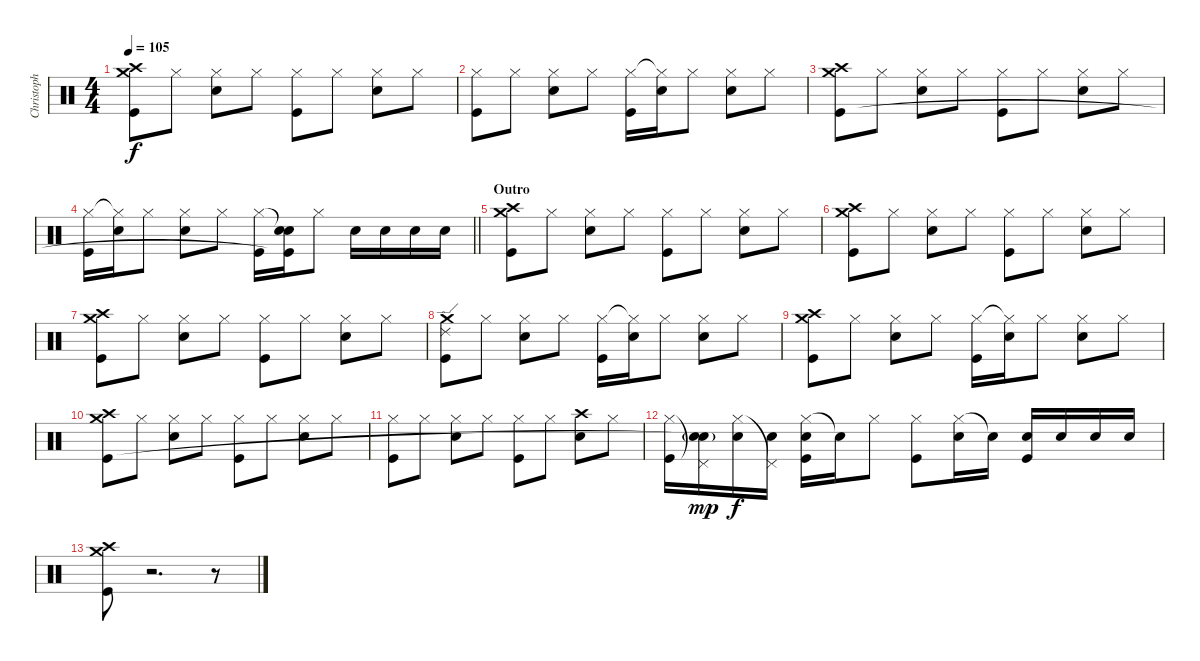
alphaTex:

\track ("Christoph Schneider" "Christoph ") {instrument percussion}
\staff {score}
\articulation defaults
\ts (4 4)
\tempo 105
\clef neutral
\ks c
("Crash medium (hit)" "Crash high (hit)" "Kick (hit)").8{dy f} "Hi-Hat (closed)".8 ("Hi-Hat (closed)" "Snare (hit) 2").8 "Hi-Hat (closed)".8 ("Hi-Hat (closed)" "Kick (hit)").8 "Hi-Hat (closed)".8 ("Hi-Hat (closed)" "Snare (hit) 2").8 "Hi-Hat (closed)".8 |
("Hi-Hat (closed)" "Kick (hit)").8 "Hi-Hat (closed)".8 ("Hi-Hat (closed)" "Snare (hit) 2").8 "Hi-Hat (closed)".8 ("Hi-Hat (closed)" "Kick (hit)").16 ("Hi-Hat (closed)"{t} "Snare (hit) 2").16 "Hi-Hat (closed)".8 ("Hi-Hat (closed)" "Snare (hit) 2").8 "Hi-Hat (closed)".8 |
("Crash medium (hit)" "Crash high (hit)" "Kick (hit)").8 "Hi-Hat (closed)".8 ("Hi-Hat (closed)" "Snare (hit) 2").8 "Hi-Hat (closed)".8 ("Hi-Hat (closed)" "Kick (hit)").8 "Hi-Hat (closed)".8 ("Hi-Hat (closed)" "Snare (hit) 2").8 "Hi-Hat (closed)".8 |
\barLineRight lightlight
("Hi-Hat (closed)" "Kick (hit)").16 ("Hi-Hat (closed)"{t} "Snare (hit) 2").16 "Hi-Hat (closed)".8 ("Hi-Hat (closed)" "Snare (hit) 2").8 "Hi-Hat (closed)".8 ("Hi-Hat (closed)" "Kick (hit)").16 ("Snare (hit)"{t} "Snare (hit) 2" "Kick (hit)"{t}).16 "Hi-Hat (closed)".8 "Snare (hit) 2".16 "Snare (hit) 2".16 "Snare (hit) 2".16 "Snare (hit) 2".16 |
\section ("" "Outro")
("Crash medium (hit)" "Crash high (hit)" "Kick (hit)").8 "Hi-Hat (closed)".8 ("Hi-Hat (closed)" "Snare (hit) 2").8 "Hi-Hat (closed)".8 ("Hi-Hat (closed)" "Kick (hit)").8 "Hi-Hat (closed)".8 ("Hi-Hat (closed)" "Snare (hit) 2").8 "Hi-Hat (closed)".8 |
("Crash medium (hit)" "Crash high (hit)" "Kick (hit)").8 "Hi-Hat (closed)".8 ("Hi-Hat (closed)" "Snare (hit) 2").8 "Hi-Hat (closed)".8 ("Hi-Hat (closed)" "Kick (hit)").8 "Hi-Hat (closed)".8 ("Hi-Hat (closed)" "Snare (hit) 2").8 "Hi-Hat (closed)".8 |
("Crash medium (hit)" "Crash high (hit)" "Kick (hit)").8 "Hi-Hat (closed)".8 ("Hi-Hat (closed)" "Snare (hit) 2").8 "Hi-Hat (closed)".8 ("Hi-Hat (closed)" "Kick (hit)").8 "Hi-Hat (closed)".8 ("Hi-Hat (closed)" "Snare (hit) 2").8 "Hi-Hat (closed)".8 |
("Crash medium (hit)" "Ride (edge) 2" "Kick (hit)").8 "Hi-Hat (closed)".8 ("Hi-Hat (closed)" "Snare (hit) 2").8 "Hi-Hat (closed)".8 ("Hi-Hat (closed)" "Kick (hit)").16 ("Hi-Hat (closed)"{t} "Snare (hit) 2").16 "Hi-Hat (closed)".8 ("Hi-Hat (closed)" "Snare (hit) 2").8 "Hi-Hat (closed)".8 |
("Crash medium (hit)" "Crash high (hit)" "Kick (hit)").8 "Hi-Hat (closed)".8 ("Hi-Hat (closed)" "Snare (hit) 2").8 "Hi-Hat (closed)".8 ("Hi-Hat (closed)" "Kick (hit)").16 ("Hi-Hat (closed)"{t} "Snare (hit) 2").16 "Hi-Hat (closed)".8 ("Hi-Hat (closed)" "Snare (hit) 2").8 "Hi-Hat (closed)".8 |
("Crash medium (hit)" "Crash high (hit)" "Kick (hit)").8 "Hi-Hat (closed)".8 ("Hi-Hat (closed)" "Snare (hit) 2").8 "Hi-Hat (closed)".8 ("Hi-Hat (closed)" "Kick (hit)").8 "Hi-Hat (closed)".8 ("Hi-Hat (closed)" "Snare (hit) 2").8 "Hi-Hat (closed)".8 |
("Hi-Hat (closed)" "Kick (hit)").8 "Hi-Hat (closed)".8 ("Hi-Hat (closed)" "Snare (hit) 2").8 "Hi-Hat (closed)".8 ("Hi-Hat (closed)" "Kick (hit)").8 "Hi-Hat (closed)".8 ("Crash high (hit)" "Snare (hit) 2").8 "Hi-Hat (closed)".8 |
("Hi-Hat (closed)" "Kick (hit)").16 ("Pedal Hi-Hat (hit)"{t} "Snare (hit) 2"{g} "Snare (hit)"{t}).16{dy mp} ("Hi-Hat (closed)" "Snare (hit) 2").16{dy f} ("Pedal Hi-Hat (hit)"{t} "Snare (hit) 2").16 ("Hi-Hat (closed)" "Snare (hit) 2" "Kick (hit)").16 "Snare (hit)"{t}.16 "Hi-Hat (closed)".8 ("Hi-Hat (closed)" "Kick (hit)").8 ("Hi-Hat (closed)" "Snare (hit) 2").16 "Snare (hit)"{t}.16 ("Snare (hit) 2" "Kick (hit)").16 "Snare (hit) 2".16 "Snare (hit) 2".16 "Snare (hit) 2".16 |
("Crash medium (hit)" "Crash high (hit)" "Kick (hit)").8 r.2{d} r.8
